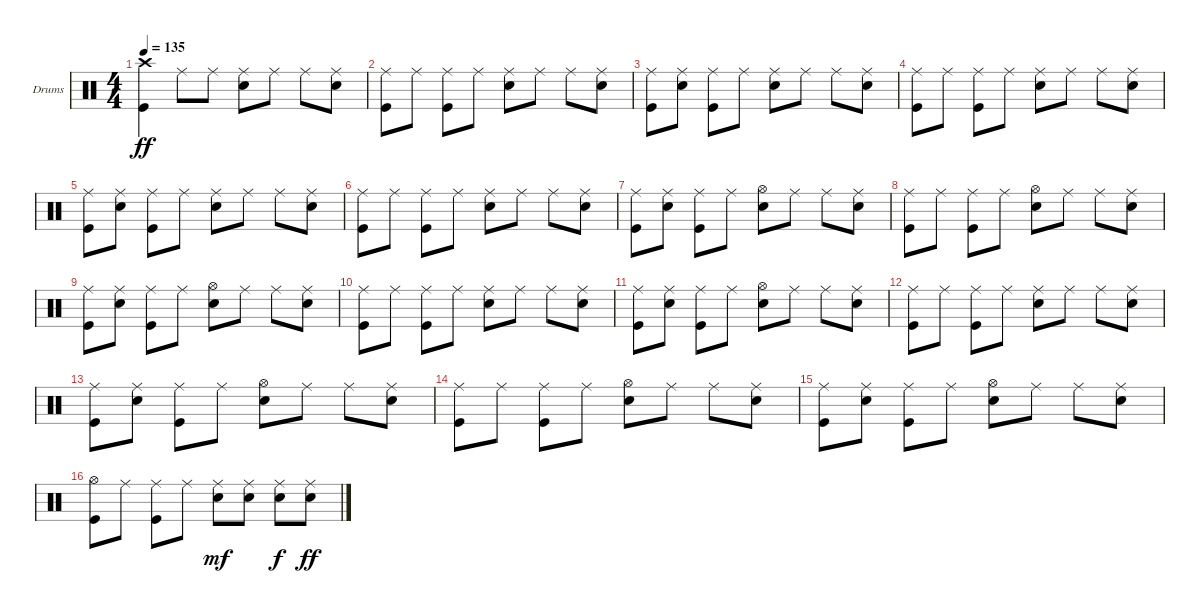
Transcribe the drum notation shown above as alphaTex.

\defaultSystemsLayout 4
\bracketExtendMode groupsimilarinstruments
\firstSystemTrackNameOrientation horizontal
\otherSystemsTrackNameOrientation horizontal
\track ("Drumkit" "Drums") {instrument percussion}
\staff {score}
\articulation defaults
\ts (4 4)
\tempo 135
\clef neutral
\scale
0.333333
\ks c
("Kick (hit)" "Crash high (hit)").4{dy ff} "Ride (middle)".8 "Ride (middle)".8 ("Ride (middle)" "Snare (hit) 2").8 "Ride (middle)".8 "Ride (middle)".8 ("Ride (middle)" "Snare (hit) 2").8 |
\scale
0.333333 ("Kick (hit)" "Ride (middle)").8 "Ride (middle)".8 ("Ride (middle)" "Kick (hit)").8 "Ride (middle)".8 ("Ride (middle)" "Snare (hit) 2").8 "Ride (middle)".8 "Ride (middle)".8 ("Ride (middle)" "Snare (hit) 2").8 |
\scale
0.333333 ("Kick (hit)" "Ride (middle)").8 ("Ride (middle)" "Snare (hit) 2").8 ("Ride (middle)" "Kick (hit)").8 "Ride (middle)".8 ("Ride (middle)" "Snare (hit) 2").8 "Ride (middle)".8 "Ride (middle)".8 ("Ride (middle)" "Snare (hit) 2").8 |
\scale
0.333333 ("Kick (hit)" "Ride (middle)").8 "Ride (middle)".8 ("Ride (middle)" "Kick (hit)").8 "Ride (middle)".8 ("Ride (middle)" "Snare (hit) 2").8 "Ride (middle)".8 "Ride (middle)".8 ("Ride (middle)" "Snare (hit) 2").8 |
\scale
0.333333 ("Kick (hit)" "Ride (middle)").8 ("Ride (middle)" "Snare (hit) 2").8 ("Ride (middle)" "Kick (hit)").8 "Ride (middle)".8 ("Ride (middle)" "Snare (hit) 2").8 "Ride (middle)".8 "Ride (middle)".8 ("Ride (middle)" "Snare (hit) 2").8 |
\scale
0.333333 ("Kick (hit)" "Ride (middle)").8 "Ride (middle)".8 ("Ride (middle)" "Kick (hit)").8 "Ride (middle)".8 ("Ride (middle)" "Snare (hit) 2").8 "Ride (middle)".8 "Ride (middle)".8 ("Ride (middle)" "Snare (hit) 2").8 |
\scale
0.333333 ("Kick (hit)" "Ride (middle)").8 ("Ride (middle)" "Snare (hit) 2").8 ("Ride (middle)" "Kick (hit)").8 "Ride (middle)".8 ("Snare (hit) 2" "Hi-Hat (open)").8 "Ride (middle)".8 "Ride (middle)".8 ("Ride (middle)" "Snare (hit) 2").8 |
\scale
0.333333 ("Kick (hit)" "Ride (middle)").8 "Ride (middle)".8 ("Ride (middle)" "Kick (hit)").8 "Ride (middle)".8 ("Snare (hit) 2" "Hi-Hat (open)").8 "Ride (middle)".8 "Ride (middle)".8 ("Ride (middle)" "Snare (hit) 2").8 |
\scale
0.333333 ("Kick (hit)" "Ride (middle)").8 ("Ride (middle)" "Snare (hit) 2").8 ("Ride (middle)" "Kick (hit)").8 "Ride (middle)".8 ("Snare (hit) 2" "Hi-Hat (open)").8 "Ride (middle)".8 "Ride (middle)".8 ("Ride (middle)" "Snare (hit) 2").8 |
\scale
0.333333 ("Kick (hit)" "Ride (middle)").8 "Ride (middle)".8 ("Ride (middle)" "Kick (hit)").8 "Ride (middle)".8 ("Ride (middle)" "Snare (hit) 2").8 "Ride (middle)".8 "Ride (middle)".8 ("Ride (middle)" "Snare (hit) 2").8 |
\scale
0.333333 ("Kick (hit)" "Ride (middle)").8 ("Ride (middle)" "Snare (hit) 2").8 ("Ride (middle)" "Kick (hit)").8 "Ride (middle)".8 ("Snare (hit) 2" "Hi-Hat (open)").8 "Ride (middle)".8 "Ride (middle)".8 ("Ride (middle)" "Snare (hit) 2").8 |
\scale
0.333333 ("Kick (hit)" "Ride (middle)").8 "Ride (middle)".8 ("Ride (middle)" "Kick (hit)").8 "Ride (middle)".8 ("Ride (middle)" "Snare (hit) 2").8 "Ride (middle)".8 "Ride (middle)".8 ("Ride (middle)" "Snare (hit) 2").8 |
\scale
0.333333 ("Kick (hit)" "Ride (middle)").8 ("Ride (middle)" "Snare (hit) 2").8 ("Ride (middle)" "Kick (hit)").8 "Ride (middle)".8 ("Snare (hit) 2" "Hi-Hat (open)").8 "Ride (middle)".8 "Ride (middle)".8 ("Ride (middle)" "Snare (hit) 2").8 |
\scale
0.333333 ("Kick (hit)" "Ride (middle)").8 "Ride (middle)".8 ("Ride (middle)" "Kick (hit)").8 "Ride (middle)".8 ("Snare (hit) 2" "Hi-Hat (open)").8 "Ride (middle)".8 "Ride (middle)".8 ("Ride (middle)" "Snare (hit) 2").8 |
\scale
0.333333 ("Kick (hit)" "Ride (middle)").8 ("Ride (middle)" "Snare (hit) 2").8 ("Ride (middle)" "Kick (hit)").8 "Ride (middle)".8 ("Snare (hit) 2" "Hi-Hat (open)").8 "Ride (middle)".8 "Ride (middle)".8 ("Ride (middle)" "Snare (hit) 2").8 |
\scale
0.333333 ("Kick (hit)" "Hi-Hat (open)").8 "Ride (middle)".8 ("Ride (middle)" "Kick (hit)").8 "Ride (middle)".8 ("Ride (middle)" "Snare (hit) 2").8{dy mf} ("Ride (middle)" "Snare (hit) 2").8 ("Ride (middle)" "Snare (hit) 2").8{dy f} ("Ride (middle)" "Snare (hit) 2").8{dy ff}
